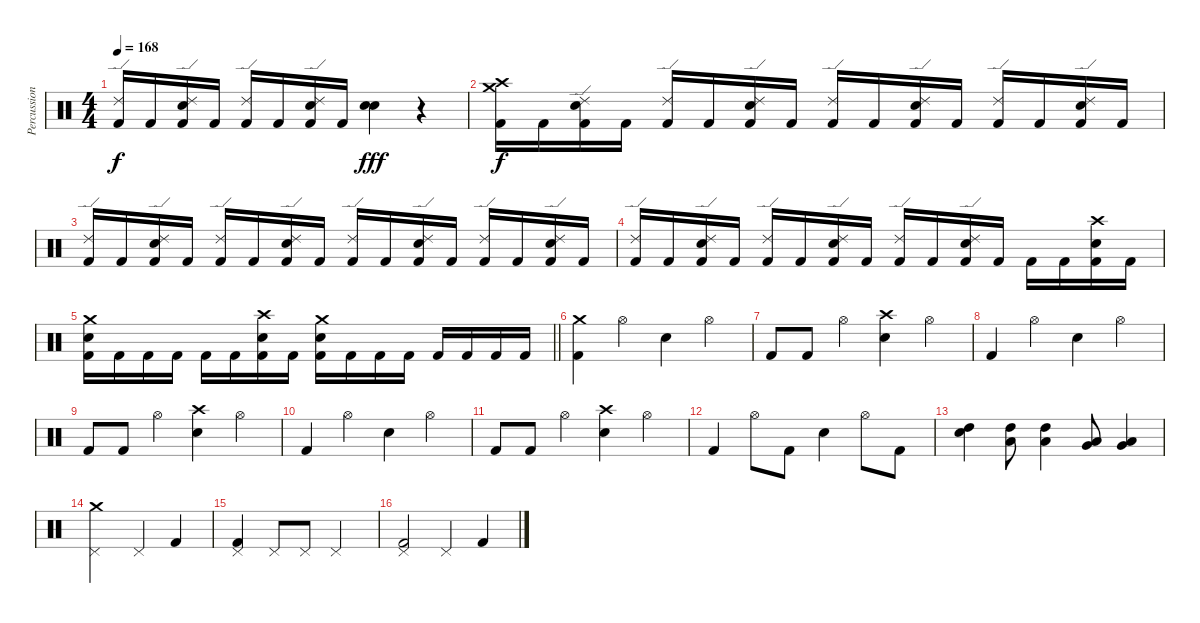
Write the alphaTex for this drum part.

\track ("Percussions" "Percussion") {instrument percussion}
\staff {score}
\articulation defaults
\ts (4 4)
\tempo 168
\clef neutral
\ks c
("Ride (edge) 2" "Kick (hit) 2").16{dy f} "Kick (hit) 2".16 ("Ride (edge) 2" "Snare (hit) 2" "Kick (hit) 2").16 "Kick (hit) 2".16 ("Ride (edge) 2" "Kick (hit) 2").16 "Kick (hit) 2".16 ("Ride (edge) 2" "Snare (hit) 2" "Kick (hit) 2").16 "Kick (hit) 2".16 ("Snare (hit) 2" "Snare (hit) 2").4{dy fff} r.4 |
("Crash medium (hit)" "Crash high (hit)" "Kick (hit) 2").16{dy f} "Kick (hit) 2".16 ("Ride (edge) 2" "Snare (hit) 2" "Kick (hit) 2").16 "Kick (hit) 2".16 ("Ride (edge) 2" "Kick (hit) 2").16 "Kick (hit) 2".16 ("Ride (edge) 2" "Snare (hit) 2" "Kick (hit) 2").16 "Kick (hit) 2".16 ("Ride (edge) 2" "Kick (hit) 2").16 "Kick (hit) 2".16 ("Ride (edge) 2" "Snare (hit) 2" "Kick (hit) 2").16 "Kick (hit) 2".16 ("Ride (edge) 2" "Kick (hit) 2").16 "Kick (hit) 2".16 ("Ride (edge) 2" "Snare (hit) 2" "Kick (hit) 2").16 "Kick (hit) 2".16 |
("Ride (edge) 2" "Kick (hit) 2").16 "Kick (hit) 2".16 ("Ride (edge) 2" "Snare (hit) 2" "Kick (hit) 2").16 "Kick (hit) 2".16 ("Ride (edge) 2" "Kick (hit) 2").16 "Kick (hit) 2".16 ("Ride (edge) 2" "Snare (hit) 2" "Kick (hit) 2").16 "Kick (hit) 2".16 ("Ride (edge) 2" "Kick (hit) 2").16 "Kick (hit) 2".16 ("Ride (edge) 2" "Snare (hit) 2" "Kick (hit) 2").16 "Kick (hit) 2".16 ("Ride (edge) 2" "Kick (hit) 2").16 "Kick (hit) 2".16 ("Ride (edge) 2" "Snare (hit) 2" "Kick (hit) 2").16 "Kick (hit) 2".16 |
("Ride (edge) 2" "Kick (hit) 2").16 "Kick (hit) 2".16 ("Ride (edge) 2" "Snare (hit) 2" "Kick (hit) 2").16 "Kick (hit) 2".16 ("Ride (edge) 2" "Kick (hit) 2").16 "Kick (hit) 2".16 ("Ride (edge) 2" "Snare (hit) 2" "Kick (hit) 2").16 "Kick (hit) 2".16 ("Ride (edge) 2" "Kick (hit) 2").16 "Kick (hit) 2".16 ("Ride (edge) 2" "Snare (hit) 2" "Kick (hit) 2").16 "Kick (hit) 2".16 "Kick (hit) 2".16 "Kick (hit) 2".16 ("Crash high (hit)" "Snare (hit) 2" "Kick (hit) 2").16 "Kick (hit) 2".16 |
\barLineRight lightlight
("Crash medium (hit)" "Snare (hit) 2" "Kick (hit) 2").16 "Kick (hit) 2".16 "Kick (hit) 2".16 "Kick (hit) 2".16 "Kick (hit) 2".16 "Kick (hit) 2".16 ("Crash high (hit)" "Snare (hit) 2" "Kick (hit) 2").16 "Kick (hit) 2".16 ("Crash medium (hit)" "Snare (hit) 2" "Kick (hit) 2").16 "Kick (hit) 2".16 "Kick (hit) 2".16 "Kick (hit) 2".16 "Kick (hit) 2".16 "Kick (hit) 2".16 "Kick (hit) 2".16 "Kick (hit) 2".16 |
("Crash medium (hit)" "Kick (hit) 2").4 "Hi-Hat (open)".4 "Snare (hit) 2".4 "Hi-Hat (open)".4 |
"Kick (hit) 2".8 "Kick (hit) 2".8 "Hi-Hat (open)".4 ("Crash high (hit)" "Snare (hit) 2").4 "Hi-Hat (open)".4 |
"Kick (hit) 2".4 "Hi-Hat (open)".4 "Snare (hit) 2".4 "Hi-Hat (open)".4 |
"Kick (hit) 2".8 "Kick (hit) 2".8 "Hi-Hat (open)".4 ("Crash high (hit)" "Snare (hit) 2").4 "Hi-Hat (open)".4 |
"Kick (hit) 2".4 "Hi-Hat (open)".4 "Snare (hit) 2".4 "Hi-Hat (open)".4 |
"Kick (hit) 2".8 "Kick (hit) 2".8 "Hi-Hat (open)".4 ("Crash high (hit)" "Snare (hit) 2").4 "Hi-Hat (open)".4 |
"Kick (hit) 2".4 "Hi-Hat (open)".8 "Kick (hit) 2".8 "Snare (hit) 2".4 "Hi-Hat (open)".8 "Kick (hit) 2".8 |
("High Tom (hit)" "Snare (hit) 2").4 ("High Tom (hit)" "Low Tom (hit)").8 ("High Tom (hit)" "Low Tom (hit)").4 ("Low Tom (hit)" "Very Low Tom (hit)").8 ("Low Tom (hit)" "Very Low Tom (hit)").4 |
("Crash medium (hit)" "Pedal Hi-Hat (hit)").2 "Pedal Hi-Hat (hit)".4 "Kick (hit) 2".4 |
("Pedal Hi-Hat (hit)" "Kick (hit) 2").4 "Pedal Hi-Hat (hit)".8 "Pedal Hi-Hat (hit)".8 "Pedal Hi-Hat (hit)".2 |
("Pedal Hi-Hat (hit)" "Kick (hit) 2").2 "Pedal Hi-Hat (hit)".4 "Kick (hit) 2".4
